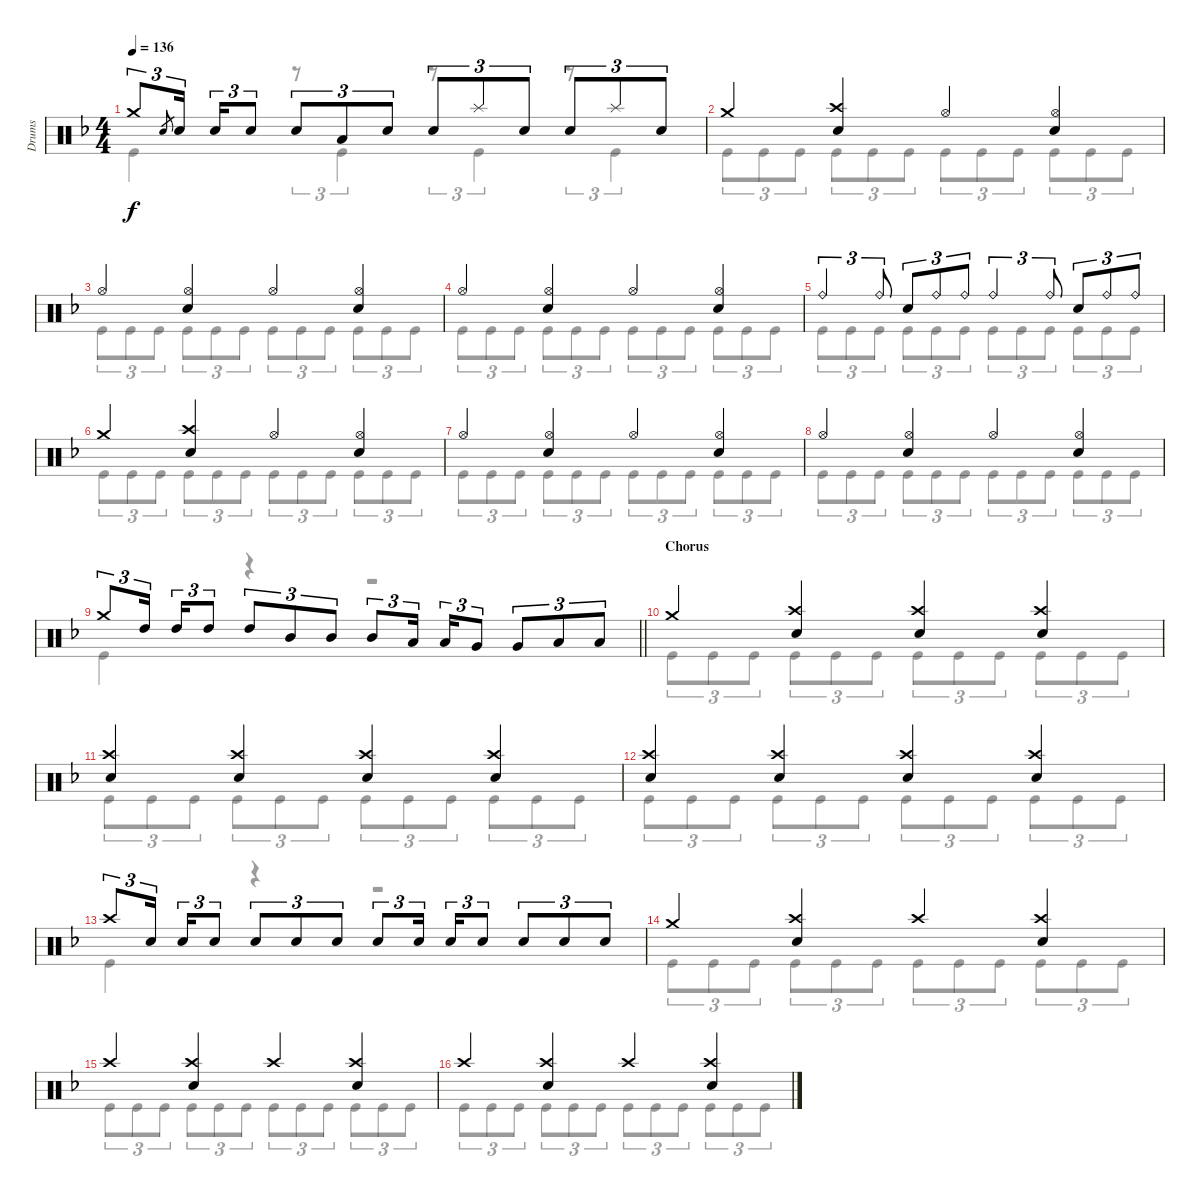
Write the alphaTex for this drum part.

\track ("Drums" "Drums") {instrument percussion}
\staff {score}
\articulation defaults
\voice
\ts (4 4)
\tempo 136
\clef neutral
\ks dminor "Crash medium (hit)".8{tu (3 2) dy f} "Electric Snare (hit)".8{gr} "Electric Snare (hit)".16{tu (3 2)} "Electric Snare (hit)".16{tu (3 2)} "Electric Snare (hit)".8{tu (3 2)} "Electric Snare (hit)".8{tu (3 2)} "Low Tom (hit)".8{tu (3 2)} "Electric Snare (hit)".8{tu (3 2)} "Electric Snare (hit)".8{tu (3 2)} "Splash (hit)".8{tu (3 2)} "Electric Snare (hit)".8{tu (3 2)} "Electric Snare (hit)".8{tu (3 2)} "Splash (hit)".8{tu (3 2)} "Electric Snare (hit)".8{tu (3 2)}
|
"Crash medium (hit)".4 ("Crash high (hit)" "Electric Snare (hit)").4 "Hi-Hat (open)".4 ("Hi-Hat (open)" "Electric Snare (hit)").4 |
"Hi-Hat (open)".4 ("Hi-Hat (open)" "Electric Snare (hit)").4 "Hi-Hat (open)".4 ("Hi-Hat (open)" "Electric Snare (hit)").4 |
"Hi-Hat (open)".4 ("Hi-Hat (open)" "Electric Snare (hit)").4 "Hi-Hat (open)".4 ("Hi-Hat (open)" "Electric Snare (hit)").4 |
"Ride (bell)".4{tu (3 2)} "Ride (bell)".8{tu (3 2)} "Electric Snare (hit)".8{tu (3 2)} "Ride (bell)".8{tu (3 2)} "Ride (bell)".8{tu (3 2)} "Ride (bell)".4{tu (3 2)} "Ride (bell)".8{tu (3 2)} "Electric Snare (hit)".8{tu (3 2)} "Ride (bell)".8{tu (3 2)} "Ride (bell)".8{tu (3 2)} |
"Crash medium (hit)".4 ("Crash high (hit)" "Electric Snare (hit)").4 "Hi-Hat (open)".4 ("Hi-Hat (open)" "Electric Snare (hit)").4 |
"Hi-Hat (open)".4 ("Hi-Hat (open)" "Electric Snare (hit)").4 "Hi-Hat (open)".4 ("Hi-Hat (open)" "Electric Snare (hit)").4 |
"Hi-Hat (open)".4 ("Hi-Hat (open)" "Electric Snare (hit)").4 "Hi-Hat (open)".4 ("Hi-Hat (open)" "Electric Snare (hit)").4 |
\barLineRight lightlight "Crash medium (hit)".8{tu (3 2)} "High Tom (hit)".16{tu (3 2)} "High Tom (hit)".16{tu (3 2)} "High Tom (hit)".8{tu (3 2)} "High Tom (hit)".8{tu (3 2)} "Mid Tom (hit)".8{tu (3 2)} "Mid Tom (hit)".8{tu (3 2)} "Mid Tom (hit)".8{tu (3 2)} "Low Tom (hit)".16{tu (3 2)} "Low Tom (hit)".16{tu (3 2)} "Very Low Tom (hit)".8{tu (3 2)} "Very Low Tom (hit)".8{tu (3 2)} "Low Floor Tom (hit)".8{tu (3 2)} "Low Floor Tom (hit)".8{tu (3 2)}
|
\section ("" "Chorus")
"Crash medium (hit)".4 ("Crash high (hit)" "Electric Snare (hit)").4 ("Crash high (hit)" "Electric Snare (hit)").4 ("Crash high (hit)" "Electric Snare (hit)").4 |
("Crash high (hit)" "Electric Snare (hit)").4 ("Crash high (hit)" "Electric Snare (hit)").4 ("Crash high (hit)" "Electric Snare (hit)").4 ("Crash high (hit)" "Electric Snare (hit)").4 |
("Crash high (hit)" "Electric Snare (hit)").4 ("Crash high (hit)" "Electric Snare (hit)").4 ("Crash high (hit)" "Electric Snare (hit)").4 ("Crash high (hit)" "Electric Snare (hit)").4 |
"Crash high (hit)".8{tu (3 2)} "Electric Snare (hit)".16{tu (3 2) beam splitsecondary} "Electric Snare (hit)".16{tu (3 2)} "Electric Snare (hit)".8{tu (3 2)} "Electric Snare (hit)".8{tu (3 2)} "Electric Snare (hit)".8{tu (3 2)} "Electric Snare (hit)".8{tu (3 2)} "Electric Snare (hit)".8{tu (3 2)} "Electric Snare (hit)".16{tu (3 2) beam splitsecondary} "Electric Snare (hit)".16{tu (3 2)} "Electric Snare (hit)".8{tu (3 2)} "Electric Snare (hit)".8{tu (3 2)} "Electric Snare (hit)".8{tu (3 2)} "Electric Snare (hit)".8{tu (3 2)} |
"Crash medium (hit)".4 ("Crash high (hit)" "Electric Snare (hit)").4 "Crash high (hit)".4 ("Crash high (hit)" "Electric Snare (hit)").4 |
"Crash high (hit)".4 ("Crash high (hit)" "Electric Snare (hit)").4 "Crash high (hit)".4 ("Crash high (hit)" "Electric Snare (hit)").4 |
"Crash high (hit)".4 ("Crash high (hit)" "Electric Snare (hit)").4 "Crash high (hit)".4 ("Crash high (hit)" "Electric Snare (hit)").4
\voice
\clef neutral
\ottava regular
\simile none
\ks dminor "Kick (hit)".4{dy f}
r.8{tu (3 2)} "Kick (hit)".4{tu (3 2)} r.8{tu (3 2)} "Kick (hit)".4{tu (3 2)} r.8{tu (3 2)} "Kick (hit)".4{tu (3 2)} |
"Kick (hit)".8{tu (3 2)} "Kick (hit)".8{tu (3 2)} "Kick (hit)".8{tu (3 2)} "Kick (hit)".8{tu (3 2)} "Kick (hit)".8{tu (3 2)} "Kick (hit)".8{tu (3 2)} "Kick (hit)".8{tu (3 2)} "Kick (hit)".8{tu (3 2)} "Kick (hit)".8{tu (3 2)} "Kick (hit)".8{tu (3 2)} "Kick (hit)".8{tu (3 2)} "Kick (hit)".8{tu (3 2)} |
"Kick (hit)".8{tu (3 2)} "Kick (hit)".8{tu (3 2)} "Kick (hit)".8{tu (3 2)} "Kick (hit)".8{tu (3 2)} "Kick (hit)".8{tu (3 2)} "Kick (hit)".8{tu (3 2)} "Kick (hit)".8{tu (3 2)} "Kick (hit)".8{tu (3 2)} "Kick (hit)".8{tu (3 2)} "Kick (hit)".8{tu (3 2)} "Kick (hit)".8{tu (3 2)} "Kick (hit)".8{tu (3 2)} |
"Kick (hit)".8{tu (3 2)} "Kick (hit)".8{tu (3 2)} "Kick (hit)".8{tu (3 2)} "Kick (hit)".8{tu (3 2)} "Kick (hit)".8{tu (3 2)} "Kick (hit)".8{tu (3 2)} "Kick (hit)".8{tu (3 2)} "Kick (hit)".8{tu (3 2)} "Kick (hit)".8{tu (3 2)} "Kick (hit)".8{tu (3 2)} "Kick (hit)".8{tu (3 2)} "Kick (hit)".8{tu (3 2)} |
"Kick (hit)".8{tu (3 2)} "Kick (hit)".8{tu (3 2)} "Kick (hit)".8{tu (3 2)} "Kick (hit)".8{tu (3 2)} "Kick (hit)".8{tu (3 2)} "Kick (hit)".8{tu (3 2)} "Kick (hit)".8{tu (3 2)} "Kick (hit)".8{tu (3 2)} "Kick (hit)".8{tu (3 2)} "Kick (hit)".8{tu (3 2)} "Kick (hit)".8{tu (3 2)} "Kick (hit)".8{tu (3 2)} |
"Kick (hit)".8{tu (3 2)} "Kick (hit)".8{tu (3 2)} "Kick (hit)".8{tu (3 2)} "Kick (hit)".8{tu (3 2)} "Kick (hit)".8{tu (3 2)} "Kick (hit)".8{tu (3 2)} "Kick (hit)".8{tu (3 2)} "Kick (hit)".8{tu (3 2)} "Kick (hit)".8{tu (3 2)} "Kick (hit)".8{tu (3 2)} "Kick (hit)".8{tu (3 2)} "Kick (hit)".8{tu (3 2)} |
"Kick (hit)".8{tu (3 2)} "Kick (hit)".8{tu (3 2)} "Kick (hit)".8{tu (3 2)} "Kick (hit)".8{tu (3 2)} "Kick (hit)".8{tu (3 2)} "Kick (hit)".8{tu (3 2)} "Kick (hit)".8{tu (3 2)} "Kick (hit)".8{tu (3 2)} "Kick (hit)".8{tu (3 2)} "Kick (hit)".8{tu (3 2)} "Kick (hit)".8{tu (3 2)} "Kick (hit)".8{tu (3 2)} |
"Kick (hit)".8{tu (3 2)} "Kick (hit)".8{tu (3 2)} "Kick (hit)".8{tu (3 2)} "Kick (hit)".8{tu (3 2)} "Kick (hit)".8{tu (3 2)} "Kick (hit)".8{tu (3 2)} "Kick (hit)".8{tu (3 2)} "Kick (hit)".8{tu (3 2)} "Kick (hit)".8{tu (3 2)} "Kick (hit)".8{tu (3 2)} "Kick (hit)".8{tu (3 2)} "Kick (hit)".8{tu (3 2)} |
\barLineRight lightlight "Kick (hit)".4
r.4 r.2 |
"Kick (hit)".8{tu (3 2)} "Kick (hit)".8{tu (3 2)} "Kick (hit)".8{tu (3 2)} "Kick (hit)".8{tu (3 2)} "Kick (hit)".8{tu (3 2)} "Kick (hit)".8{tu (3 2)} "Kick (hit)".8{tu (3 2)} "Kick (hit)".8{tu (3 2)} "Kick (hit)".8{tu (3 2)} "Kick (hit)".8{tu (3 2)} "Kick (hit)".8{tu (3 2)} "Kick (hit)".8{tu (3 2)} |
"Kick (hit)".8{tu (3 2)} "Kick (hit)".8{tu (3 2)} "Kick (hit)".8{tu (3 2)} "Kick (hit)".8{tu (3 2)} "Kick (hit)".8{tu (3 2)} "Kick (hit)".8{tu (3 2)} "Kick (hit)".8{tu (3 2)} "Kick (hit)".8{tu (3 2)} "Kick (hit)".8{tu (3 2)} "Kick (hit)".8{tu (3 2)} "Kick (hit)".8{tu (3 2)} "Kick (hit)".8{tu (3 2)} |
"Kick (hit)".8{tu (3 2)} "Kick (hit)".8{tu (3 2)} "Kick (hit)".8{tu (3 2)} "Kick (hit)".8{tu (3 2)} "Kick (hit)".8{tu (3 2)} "Kick (hit)".8{tu (3 2)} "Kick (hit)".8{tu (3 2)} "Kick (hit)".8{tu (3 2)} "Kick (hit)".8{tu (3 2)} "Kick (hit)".8{tu (3 2)} "Kick (hit)".8{tu (3 2)} "Kick (hit)".8{tu (3 2)} |
"Kick (hit)".4 r.4 r.2 |
"Kick (hit)".8{tu (3 2)} "Kick (hit)".8{tu (3 2)} "Kick (hit)".8{tu (3 2)} "Kick (hit)".8{tu (3 2)} "Kick (hit)".8{tu (3 2)} "Kick (hit)".8{tu (3 2)} "Kick (hit)".8{tu (3 2)} "Kick (hit)".8{tu (3 2)} "Kick (hit)".8{tu (3 2)} "Kick (hit)".8{tu (3 2)} "Kick (hit)".8{tu (3 2)} "Kick (hit)".8{tu (3 2)} |
"Kick (hit)".8{tu (3 2)} "Kick (hit)".8{tu (3 2)} "Kick (hit)".8{tu (3 2)} "Kick (hit)".8{tu (3 2)} "Kick (hit)".8{tu (3 2)} "Kick (hit)".8{tu (3 2)} "Kick (hit)".8{tu (3 2)} "Kick (hit)".8{tu (3 2)} "Kick (hit)".8{tu (3 2)} "Kick (hit)".8{tu (3 2)} "Kick (hit)".8{tu (3 2)} "Kick (hit)".8{tu (3 2)} |
"Kick (hit)".8{tu (3 2)} "Kick (hit)".8{tu (3 2)} "Kick (hit)".8{tu (3 2)} "Kick (hit)".8{tu (3 2)} "Kick (hit)".8{tu (3 2)} "Kick (hit)".8{tu (3 2)} "Kick (hit)".8{tu (3 2)} "Kick (hit)".8{tu (3 2)} "Kick (hit)".8{tu (3 2)} "Kick (hit)".8{tu (3 2)} "Kick (hit)".8{tu (3 2)} "Kick (hit)".8{tu (3 2)}
